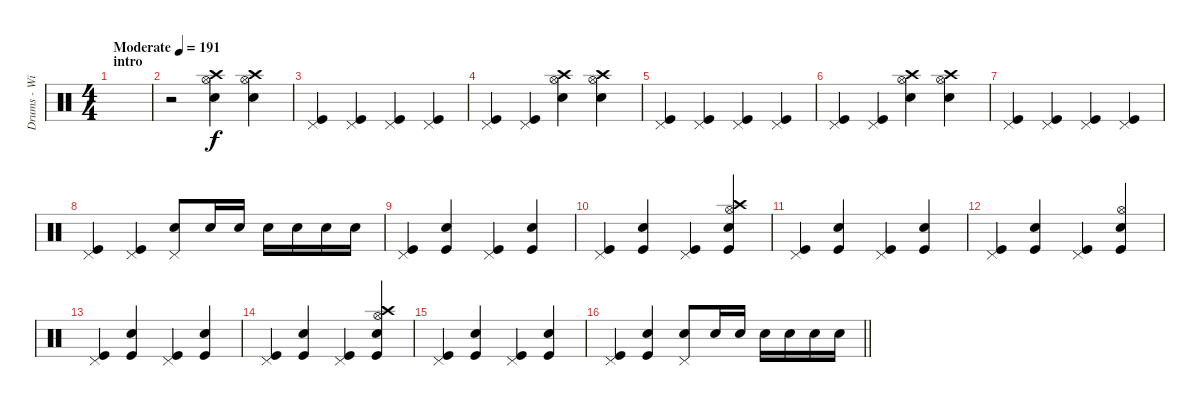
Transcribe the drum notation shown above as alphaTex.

\track ("Drums - Willie Buchan" "Drums - Wi") {instrument percussion}
\staff {score}
\articulation defaults
\ts (4 4)
\section ("" "intro")
\tempo (191 "Moderate")
\clef neutral
\ks c
|
r.2 ("Snare (hit) 2" "Hi-Hat (open)" "Crash high (hit)").4 ("Snare (hit) 2" "Hi-Hat (open)" "Crash high (hit)").4 |
("Kick (hit)" "Pedal Hi-Hat (hit)").4 ("Kick (hit)" "Pedal Hi-Hat (hit)").4 ("Kick (hit)" "Pedal Hi-Hat (hit)").4 ("Kick (hit)" "Pedal Hi-Hat (hit)").4 |
("Kick (hit)" "Pedal Hi-Hat (hit)").4 ("Kick (hit)" "Pedal Hi-Hat (hit)").4 ("Snare (hit) 2" "Hi-Hat (open)" "Crash high (hit)").4 ("Snare (hit) 2" "Hi-Hat (open)" "Crash high (hit)").4 |
("Kick (hit)" "Pedal Hi-Hat (hit)").4 ("Kick (hit)" "Pedal Hi-Hat (hit)").4 ("Kick (hit)" "Pedal Hi-Hat (hit)").4 ("Kick (hit)" "Pedal Hi-Hat (hit)").4 |
("Kick (hit)" "Pedal Hi-Hat (hit)").4 ("Kick (hit)" "Pedal Hi-Hat (hit)").4 ("Snare (hit) 2" "Hi-Hat (open)" "Crash high (hit)").4 ("Snare (hit) 2" "Hi-Hat (open)" "Crash high (hit)").4 |
("Kick (hit)" "Pedal Hi-Hat (hit)").4 ("Kick (hit)" "Pedal Hi-Hat (hit)").4 ("Kick (hit)" "Pedal Hi-Hat (hit)").4 ("Kick (hit)" "Pedal Hi-Hat (hit)").4 |
("Kick (hit)" "Pedal Hi-Hat (hit)").4 ("Kick (hit)" "Pedal Hi-Hat (hit)").4 ("Snare (hit) 2" "Pedal Hi-Hat (hit)").8 "Snare (hit) 2".16 "Snare (hit) 2".16 "Snare (hit) 2".16 "Snare (hit) 2".16 "Snare (hit) 2".16 "Snare (hit) 2".16 |
("Kick (hit)" "Pedal Hi-Hat (hit)").4 ("Kick (hit)" "Snare (hit) 2").4 ("Kick (hit)" "Pedal Hi-Hat (hit)").4 ("Kick (hit)" "Snare (hit) 2").4 |
("Kick (hit)" "Pedal Hi-Hat (hit)").4 ("Kick (hit)" "Snare (hit) 2").4 ("Kick (hit)" "Pedal Hi-Hat (hit)").4 ("Kick (hit)" "Snare (hit) 2" "Hi-Hat (open)" "Crash high (hit)").4 |
("Kick (hit)" "Pedal Hi-Hat (hit)").4 ("Kick (hit)" "Snare (hit) 2").4 ("Kick (hit)" "Pedal Hi-Hat (hit)").4 ("Kick (hit)" "Snare (hit) 2").4 |
("Kick (hit)" "Pedal Hi-Hat (hit)").4 ("Kick (hit)" "Snare (hit) 2").4 ("Kick (hit)" "Pedal Hi-Hat (hit)").4 ("Kick (hit)" "Snare (hit) 2" "Hi-Hat (open)").4 |
("Kick (hit)" "Pedal Hi-Hat (hit)").4 ("Kick (hit)" "Snare (hit) 2").4 ("Kick (hit)" "Pedal Hi-Hat (hit)").4 ("Kick (hit)" "Snare (hit) 2").4 |
("Kick (hit)" "Pedal Hi-Hat (hit)").4 ("Kick (hit)" "Snare (hit) 2").4 ("Kick (hit)" "Pedal Hi-Hat (hit)").4 ("Kick (hit)" "Snare (hit) 2" "Hi-Hat (open)" "Crash high (hit)").4 |
("Kick (hit)" "Pedal Hi-Hat (hit)").4 ("Kick (hit)" "Snare (hit) 2").4 ("Kick (hit)" "Pedal Hi-Hat (hit)").4 ("Kick (hit)" "Snare (hit) 2").4 |
\barLineRight lightlight
("Kick (hit)" "Pedal Hi-Hat (hit)").4 ("Kick (hit)" "Snare (hit) 2").4 ("Snare (hit) 2" "Pedal Hi-Hat (hit)").8 "Snare (hit) 2".16 "Snare (hit) 2".16 "Snare (hit) 2".16 "Snare (hit) 2".16 "Snare (hit) 2".16 "Snare (hit) 2".16
